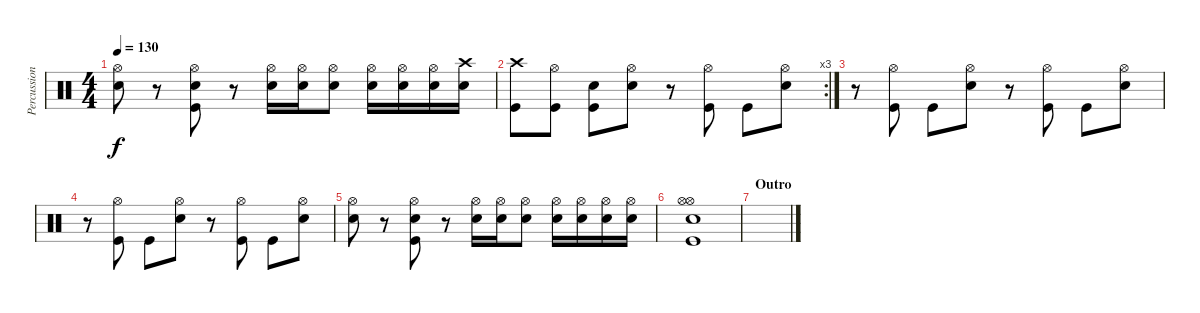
\track ("Percussion" "Percussion") {instrument percussion}
\staff {score}
\articulation defaults
\ts (4 4)
\tempo 130
\clef neutral
\ks c
("Hi-Hat (open)" "Snare (hit) 2").8{dy f} r.8 ("Hi-Hat (open)" "Snare (hit) 2" "Kick (hit)").8 r.8 ("Hi-Hat (open)" "Snare (hit) 2").16 ("Hi-Hat (open)" "Snare (hit) 2").16 ("Hi-Hat (open)" "Snare (hit) 2").8 ("Hi-Hat (open)" "Snare (hit) 2").16 ("Hi-Hat (open)" "Snare (hit) 2").16 ("Hi-Hat (open)" "Snare (hit) 2").16 ("Crash high (hit)" "Snare (hit) 2").16 |
\rc 3
("Crash high (hit)" "Kick (hit)").8 ("Hi-Hat (open)" "Kick (hit)").8 ("Snare (hit) 2" "Kick (hit)").8 ("Hi-Hat (open)" "Snare (hit) 2").8 r.8 ("Hi-Hat (open)" "Kick (hit)").8 "Kick (hit)".8 ("Hi-Hat (open)" "Snare (hit) 2").8 |
r.8 ("Hi-Hat (open)" "Kick (hit)").8 "Kick (hit)".8 ("Hi-Hat (open)" "Snare (hit) 2").8 r.8 ("Hi-Hat (open)" "Kick (hit)").8 "Kick (hit)".8 ("Hi-Hat (open)" "Snare (hit) 2").8 |
r.8 ("Hi-Hat (open)" "Kick (hit)").8 "Kick (hit)".8 ("Hi-Hat (open)" "Snare (hit) 2").8 r.8 ("Hi-Hat (open)" "Kick (hit)").8 "Kick (hit)".8 ("Hi-Hat (open)" "Snare (hit) 2").8 |
("Hi-Hat (open)" "Snare (hit) 2").8 r.8 ("Hi-Hat (open)" "Snare (hit) 2" "Kick (hit)").8 r.8 ("Hi-Hat (open)" "Snare (hit) 2").16 ("Hi-Hat (open)" "Snare (hit) 2").16 ("Hi-Hat (open)" "Snare (hit) 2").8 ("Hi-Hat (open)" "Snare (hit) 2").16 ("Hi-Hat (open)" "Snare (hit) 2").16 ("Hi-Hat (open)" "Snare (hit) 2").16 ("Hi-Hat (open)" "Snare (hit) 2").16 |
("Hi-Hat (open)" "Hi-Hat (open)" "Snare (hit) 2" "Kick (hit)").1 |
\section ("" "Outro")
